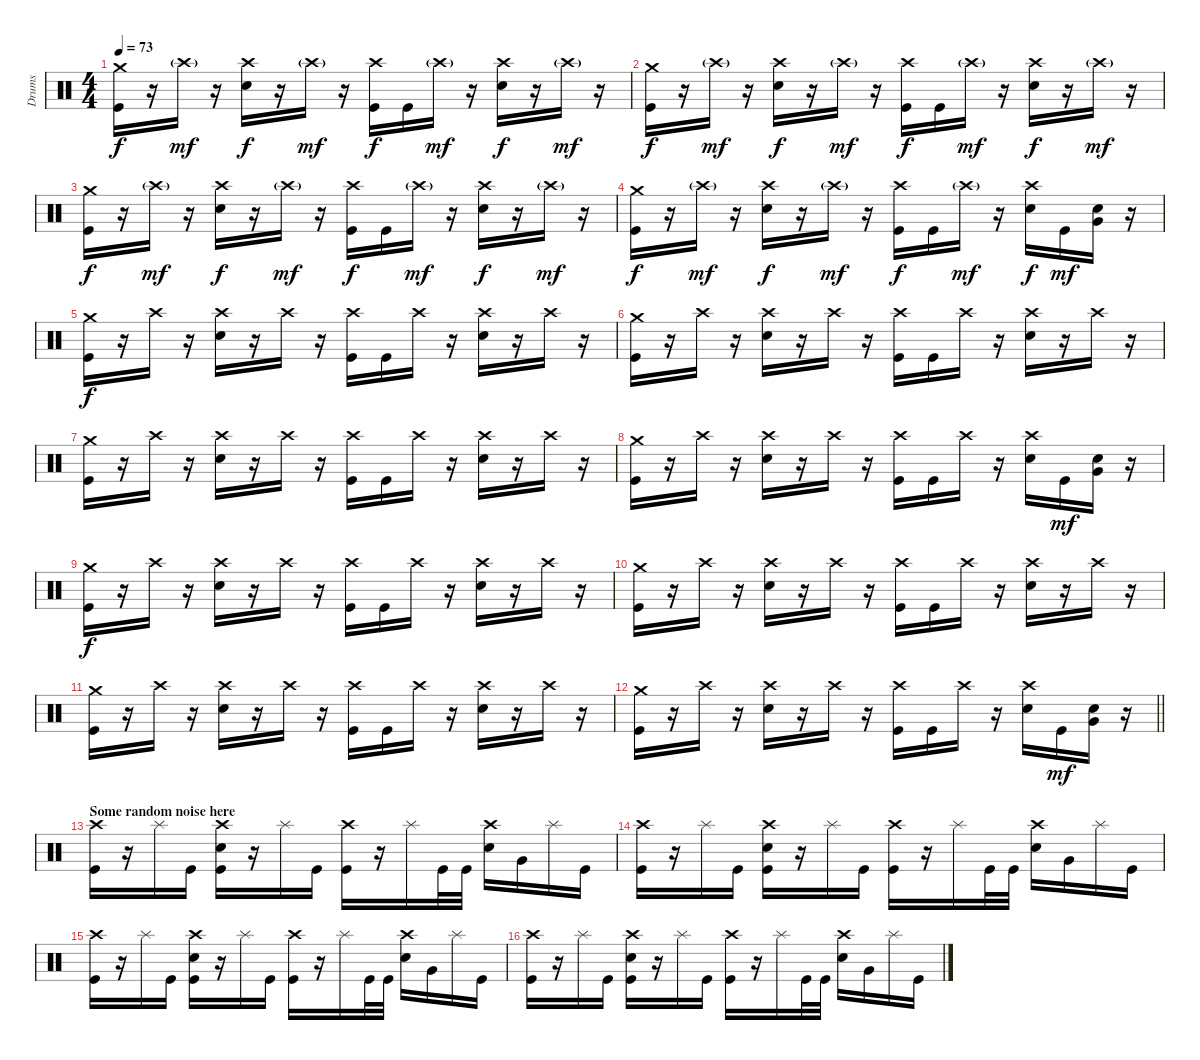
\track ("Drums" "Drums") {instrument percussion}
\staff {score}
\articulation defaults
\ts (4 4)
\tempo 73
\clef neutral
\ks c
("Crash medium (hit)" "Kick (hit)").16{dy f} r.16 "Crash high (hit)"{g}.16{dy mf} r.16 ("Crash high (hit)" "Snare (hit) 2").16{dy f} r.16 "Crash high (hit)"{g}.16{dy mf} r.16 ("Crash high (hit)" "Kick (hit)").16{dy f} "Kick (hit)".16 "Crash high (hit)"{g}.16{dy mf} r.16 ("Crash high (hit)" "Snare (hit) 2").16{dy f} r.16 "Crash high (hit)"{g}.16{dy mf} r.16 |
("Crash medium (hit)" "Kick (hit)").16{dy f} r.16 "Crash high (hit)"{g}.16{dy mf} r.16 ("Crash high (hit)" "Snare (hit) 2").16{dy f} r.16 "Crash high (hit)"{g}.16{dy mf} r.16 ("Crash high (hit)" "Kick (hit)").16{dy f} "Kick (hit)".16 "Crash high (hit)"{g}.16{dy mf} r.16 ("Crash high (hit)" "Snare (hit) 2").16{dy f} r.16 "Crash high (hit)"{g}.16{dy mf} r.16 |
("Crash medium (hit)" "Kick (hit)").16{dy f} r.16 "Crash high (hit)"{g}.16{dy mf} r.16 ("Crash high (hit)" "Snare (hit) 2").16{dy f} r.16 "Crash high (hit)"{g}.16{dy mf} r.16 ("Crash high (hit)" "Kick (hit)").16{dy f} "Kick (hit)".16 "Crash high (hit)"{g}.16{dy mf} r.16 ("Crash high (hit)" "Snare (hit) 2").16{dy f} r.16 "Crash high (hit)"{g}.16{dy mf} r.16 |
("Crash medium (hit)" "Kick (hit)").16{dy f} r.16 "Crash high (hit)"{g}.16{dy mf} r.16 ("Crash high (hit)" "Snare (hit) 2").16{dy f} r.16 "Crash high (hit)"{g}.16{dy mf} r.16 ("Crash high (hit)" "Kick (hit)").16{dy f} "Kick (hit)".16 "Crash high (hit)"{g}.16{dy mf} r.16 ("Crash high (hit)" "Snare (hit) 2").16{dy f} "Kick (hit)".16{dy mf} ("Snare (hit) 2" "Very Low Tom (hit)").16 r.16 |
("Crash medium (hit)" "Kick (hit)").16{dy f} r.16 "Crash high (hit)".16 r.16 ("Crash high (hit)" "Snare (hit) 2").16 r.16 "Crash high (hit)".16 r.16 ("Crash high (hit)" "Kick (hit)").16 "Kick (hit)".16 "Crash high (hit)".16 r.16 ("Crash high (hit)" "Snare (hit) 2").16 r.16 "Crash high (hit)".16 r.16 |
("Crash medium (hit)" "Kick (hit)").16 r.16 "Crash high (hit)".16 r.16 ("Crash high (hit)" "Snare (hit) 2").16 r.16 "Crash high (hit)".16 r.16 ("Crash high (hit)" "Kick (hit)").16 "Kick (hit)".16 "Crash high (hit)".16 r.16 ("Crash high (hit)" "Snare (hit) 2").16 r.16 "Crash high (hit)".16 r.16 |
("Crash medium (hit)" "Kick (hit)").16 r.16 "Crash high (hit)".16 r.16 ("Crash high (hit)" "Snare (hit) 2").16 r.16 "Crash high (hit)".16 r.16 ("Crash high (hit)" "Kick (hit)").16 "Kick (hit)".16 "Crash high (hit)".16 r.16 ("Crash high (hit)" "Snare (hit) 2").16 r.16 "Crash high (hit)".16 r.16 |
("Crash medium (hit)" "Kick (hit)").16 r.16 "Crash high (hit)".16 r.16 ("Crash high (hit)" "Snare (hit) 2").16 r.16 "Crash high (hit)".16 r.16 ("Crash high (hit)" "Kick (hit)").16 "Kick (hit)".16 "Crash high (hit)".16 r.16 ("Crash high (hit)" "Snare (hit) 2").16 "Kick (hit)".16{dy mf} ("Snare (hit) 2" "Very Low Tom (hit)").16 r.16 |
("Crash medium (hit)" "Kick (hit)").16{dy f} r.16 "Crash high (hit)".16 r.16 ("Crash high (hit)" "Snare (hit) 2").16 r.16 "Crash high (hit)".16 r.16 ("Crash high (hit)" "Kick (hit)").16 "Kick (hit)".16 "Crash high (hit)".16 r.16 ("Crash high (hit)" "Snare (hit) 2").16 r.16 "Crash high (hit)".16 r.16 |
("Crash medium (hit)" "Kick (hit)").16 r.16 "Crash high (hit)".16 r.16 ("Crash high (hit)" "Snare (hit) 2").16 r.16 "Crash high (hit)".16 r.16 ("Crash high (hit)" "Kick (hit)").16 "Kick (hit)".16 "Crash high (hit)".16 r.16 ("Crash high (hit)" "Snare (hit) 2").16 r.16 "Crash high (hit)".16 r.16 |
("Crash medium (hit)" "Kick (hit)").16 r.16 "Crash high (hit)".16 r.16 ("Crash high (hit)" "Snare (hit) 2").16 r.16 "Crash high (hit)".16 r.16 ("Crash high (hit)" "Kick (hit)").16 "Kick (hit)".16 "Crash high (hit)".16 r.16 ("Crash high (hit)" "Snare (hit) 2").16 r.16 "Crash high (hit)".16 r.16 |
\barLineRight lightlight
("Crash medium (hit)" "Kick (hit)").16 r.16 "Crash high (hit)".16 r.16 ("Crash high (hit)" "Snare (hit) 2").16 r.16 "Crash high (hit)".16 r.16 ("Crash high (hit)" "Kick (hit)").16 "Kick (hit)".16 "Crash high (hit)".16 r.16 ("Crash high (hit)" "Snare (hit) 2").16 "Kick (hit)".16{dy mf} ("Snare (hit) 2" "Very Low Tom (hit)").16 r.16 |
\section ("" "Some random noise here")
("Crash high (hit)" "Kick (hit)").16 r.16 "Splash (hit)".16 "Kick (hit)".16 ("Crash high (hit)" "Electric Snare (hit)" "Kick (hit)").16 r.16 "Splash (hit)".16 "Kick (hit)".16 ("Crash high (hit)" "Kick (hit)").16 r.16 "Splash (hit)".16 "Kick (hit)".32 "Kick (hit)".32 ("Crash high (hit)" "Electric Snare (hit)").16 "Very Low Tom (hit)".16 "Splash (hit)".16 "Kick (hit)".16 |
("Crash high (hit)" "Kick (hit)").16 r.16 "Splash (hit)".16 "Kick (hit)".16 ("Crash high (hit)" "Electric Snare (hit)" "Kick (hit)").16 r.16 "Splash (hit)".16 "Kick (hit)".16 ("Crash high (hit)" "Kick (hit)").16 r.16 "Splash (hit)".16 "Kick (hit)".32 "Kick (hit)".32 ("Crash high (hit)" "Electric Snare (hit)").16 "Very Low Tom (hit)".16 "Splash (hit)".16 "Kick (hit)".16 |
("Crash high (hit)" "Kick (hit)").16 r.16 "Splash (hit)".16 "Kick (hit)".16 ("Crash high (hit)" "Electric Snare (hit)" "Kick (hit)").16 r.16 "Splash (hit)".16 "Kick (hit)".16 ("Crash high (hit)" "Kick (hit)").16 r.16 "Splash (hit)".16 "Kick (hit)".32 "Kick (hit)".32 ("Crash high (hit)" "Electric Snare (hit)").16 "Very Low Tom (hit)".16 "Splash (hit)".16 "Kick (hit)".16 |
("Crash high (hit)" "Kick (hit)").16 r.16 "Splash (hit)".16 "Kick (hit)".16 ("Crash high (hit)" "Electric Snare (hit)" "Kick (hit)").16 r.16 "Splash (hit)".16 "Kick (hit)".16 ("Crash high (hit)" "Kick (hit)").16 r.16 "Splash (hit)".16 "Kick (hit)".32 "Kick (hit)".32 ("Crash high (hit)" "Electric Snare (hit)").16 "Very Low Tom (hit)".16 "Splash (hit)".16 "Kick (hit)".16
